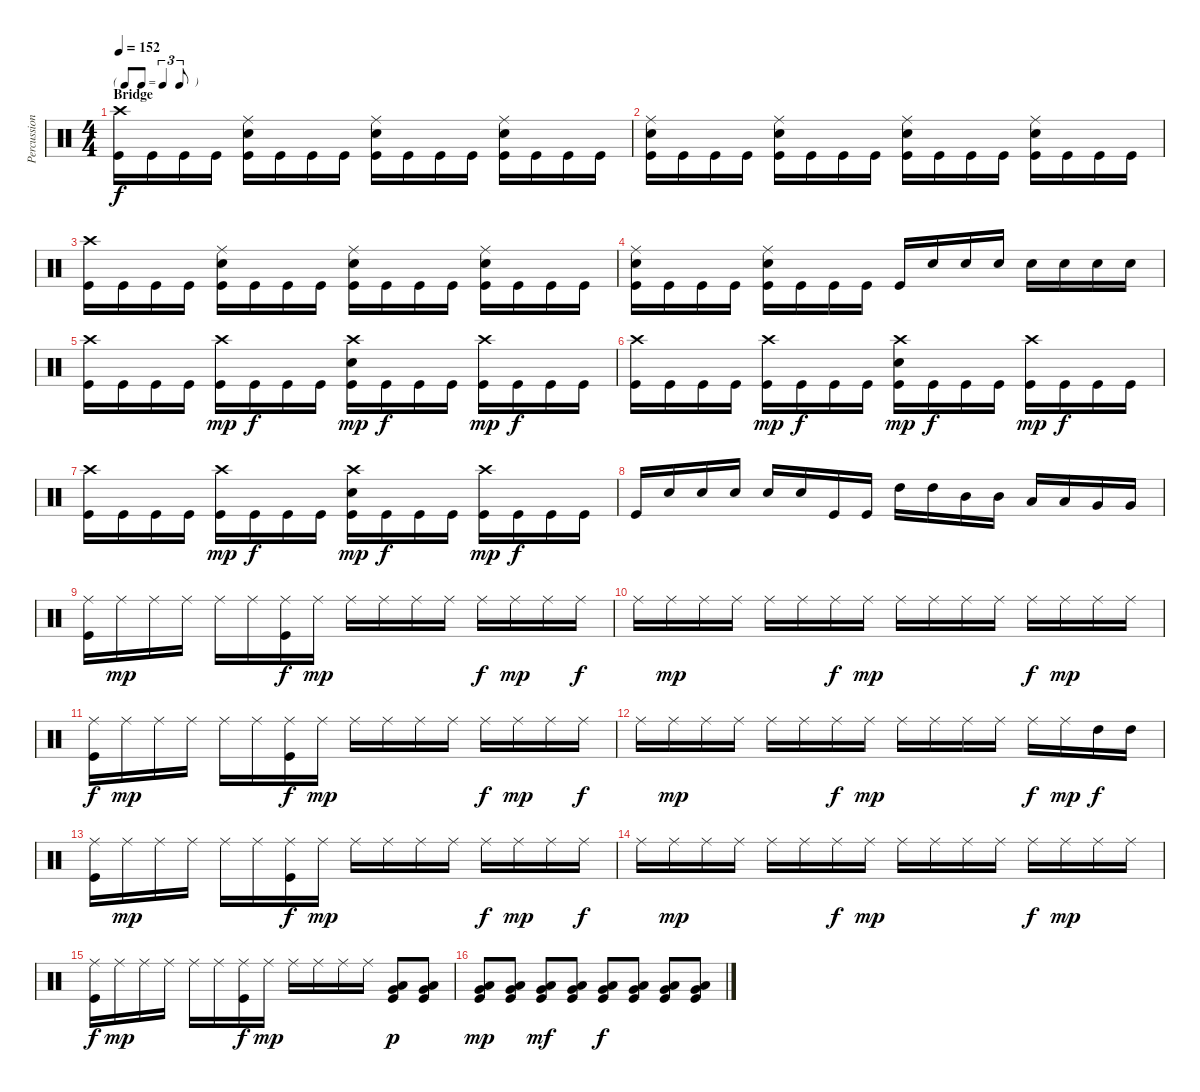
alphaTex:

\track ("Percussion" "Percussion") {instrument percussion}
\staff {score}
\articulation defaults
\ts (4 4)
\tf triplet8th
\section ("" "Bridge")
\tempo 152
\clef neutral
\ks c
("Crash high (hit)" "Kick (hit)").16{dy f} "Kick (hit)".16 "Kick (hit)".16 "Kick (hit)".16 ("Snare (hit) 2" "Ride (middle)" "Kick (hit)").16 "Kick (hit)".16 "Kick (hit)".16 "Kick (hit)".16 ("Ride (middle)" "Snare (hit) 2" "Kick (hit)").16 "Kick (hit)".16 "Kick (hit)".16 "Kick (hit)".16 ("Snare (hit) 2" "Ride (middle)" "Kick (hit)").16 "Kick (hit)".16 "Kick (hit)".16 "Kick (hit)".16 |
("Snare (hit) 2" "Ride (middle)" "Kick (hit)").16 "Kick (hit)".16 "Kick (hit)".16 "Kick (hit)".16 ("Snare (hit) 2" "Ride (middle)" "Kick (hit)").16 "Kick (hit)".16 "Kick (hit)".16 "Kick (hit)".16 ("Ride (middle)" "Snare (hit) 2" "Kick (hit)").16 "Kick (hit)".16 "Kick (hit)".16 "Kick (hit)".16 ("Snare (hit) 2" "Ride (middle)" "Kick (hit)").16 "Kick (hit)".16 "Kick (hit)".16 "Kick (hit)".16 |
("Crash high (hit)" "Kick (hit)").16 "Kick (hit)".16 "Kick (hit)".16 "Kick (hit)".16 ("Snare (hit) 2" "Ride (middle)" "Kick (hit)").16 "Kick (hit)".16 "Kick (hit)".16 "Kick (hit)".16 ("Ride (middle)" "Snare (hit) 2" "Kick (hit)").16 "Kick (hit)".16 "Kick (hit)".16 "Kick (hit)".16 ("Snare (hit) 2" "Ride (middle)" "Kick (hit)").16 "Kick (hit)".16 "Kick (hit)".16 "Kick (hit)".16 |
("Ride (middle)" "Snare (hit) 2" "Kick (hit)").16 "Kick (hit)".16 "Kick (hit)".16 "Kick (hit)".16 ("Snare (hit) 2" "Ride (middle)" "Kick (hit)").16 "Kick (hit)".16 "Kick (hit)".16 "Kick (hit)".16 "Kick (hit)".16 "Snare (hit) 2".16 "Snare (hit) 2".16 "Snare (hit) 2".16 "Snare (hit) 2".16 "Snare (hit) 2".16 "Snare (hit) 2".16 "Snare (hit) 2".16 |
("Crash high (hit)" "Kick (hit)").16 "Kick (hit)".16 "Kick (hit)".16 "Kick (hit)".16 ("Crash high (hit)" "Kick (hit)").16{dy mp} "Kick (hit)".16{dy f} "Kick (hit)".16 "Kick (hit)".16 ("Crash high (hit)" "Snare (hit) 2" "Kick (hit)").16{dy mp} "Kick (hit)".16{dy f} "Kick (hit)".16 "Kick (hit)".16 ("Crash high (hit)" "Kick (hit)").16{dy mp} "Kick (hit)".16{dy f} "Kick (hit)".16 "Kick (hit)".16 |
("Crash high (hit)" "Kick (hit)").16 "Kick (hit)".16 "Kick (hit)".16 "Kick (hit)".16 ("Crash high (hit)" "Kick (hit)").16{dy mp} "Kick (hit)".16{dy f} "Kick (hit)".16 "Kick (hit)".16 ("Crash high (hit)" "Snare (hit) 2" "Kick (hit)").16{dy mp} "Kick (hit)".16{dy f} "Kick (hit)".16 "Kick (hit)".16 ("Crash high (hit)" "Kick (hit)").16{dy mp} "Kick (hit)".16{dy f} "Kick (hit)".16 "Kick (hit)".16 |
("Crash high (hit)" "Kick (hit)").16 "Kick (hit)".16 "Kick (hit)".16 "Kick (hit)".16 ("Crash high (hit)" "Kick (hit)").16{dy mp} "Kick (hit)".16{dy f} "Kick (hit)".16 "Kick (hit)".16 ("Crash high (hit)" "Snare (hit) 2" "Kick (hit)").16{dy mp} "Kick (hit)".16{dy f} "Kick (hit)".16 "Kick (hit)".16 ("Crash high (hit)" "Kick (hit)").16{dy mp} "Kick (hit)".16{dy f} "Kick (hit)".16 "Kick (hit)".16 |
"Kick (hit)".16 "Snare (hit) 2".16 "Snare (hit) 2".16 "Snare (hit) 2".16 "Snare (hit) 2".16 "Snare (hit) 2".16 "Kick (hit)".16 "Kick (hit)".16 "High Tom (hit)".16 "High Tom (hit)".16 "Mid Tom (hit)".16 "Mid Tom (hit)".16 "Low Tom (hit)".16 "Low Tom (hit)".16 "Very Low Tom (hit)".16 "Very Low Tom (hit)".16 |
("Ride (middle)" "Kick (hit)").16 "Ride (middle)".16{dy mp} "Ride (middle)".16 "Ride (middle)".16 "Ride (middle)".16 "Ride (middle)".16 ("Ride (middle)" "Kick (hit)").16{dy f} "Ride (middle)".16{dy mp} "Ride (middle)".16 "Ride (middle)".16 "Ride (middle)".16 "Ride (middle)".16 "Ride (middle)".16{dy f} "Ride (middle)".16{dy mp} "Ride (middle)".16 "Ride (middle)".16{dy f} |
"Ride (middle)".16 "Ride (middle)".16{dy mp} "Ride (middle)".16 "Ride (middle)".16 "Ride (middle)".16 "Ride (middle)".16 "Ride (middle)".16{dy f} "Ride (middle)".16{dy mp} "Ride (middle)".16 "Ride (middle)".16 "Ride (middle)".16 "Ride (middle)".16 "Ride (middle)".16{dy f} "Ride (middle)".16{dy mp} "Ride (middle)".16 "Ride (middle)".16 |
("Ride (middle)" "Kick (hit)").16{dy f} "Ride (middle)".16{dy mp} "Ride (middle)".16 "Ride (middle)".16 "Ride (middle)".16 "Ride (middle)".16 ("Ride (middle)" "Kick (hit)").16{dy f} "Ride (middle)".16{dy mp} "Ride (middle)".16 "Ride (middle)".16 "Ride (middle)".16 "Ride (middle)".16 "Ride (middle)".16{dy f} "Ride (middle)".16{dy mp} "Ride (middle)".16 "Ride (middle)".16{dy f} |
"Ride (middle)".16 "Ride (middle)".16{dy mp} "Ride (middle)".16 "Ride (middle)".16 "Ride (middle)".16 "Ride (middle)".16 "Ride (middle)".16{dy f} "Ride (middle)".16{dy mp} "Ride (middle)".16 "Ride (middle)".16 "Ride (middle)".16 "Ride (middle)".16 "Ride (middle)".16{dy f} "Ride (middle)".16{dy mp} "High Tom (hit)".16{dy f} "High Tom (hit)".16 |
("Ride (middle)" "Kick (hit)").16 "Ride (middle)".16{dy mp} "Ride (middle)".16 "Ride (middle)".16 "Ride (middle)".16 "Ride (middle)".16 ("Ride (middle)" "Kick (hit)").16{dy f} "Ride (middle)".16{dy mp} "Ride (middle)".16 "Ride (middle)".16 "Ride (middle)".16 "Ride (middle)".16 "Ride (middle)".16{dy f} "Ride (middle)".16{dy mp} "Ride (middle)".16 "Ride (middle)".16{dy f} |
"Ride (middle)".16 "Ride (middle)".16{dy mp} "Ride (middle)".16 "Ride (middle)".16 "Ride (middle)".16 "Ride (middle)".16 "Ride (middle)".16{dy f} "Ride (middle)".16{dy mp} "Ride (middle)".16 "Ride (middle)".16 "Ride (middle)".16 "Ride (middle)".16 "Ride (middle)".16{dy f} "Ride (middle)".16{dy mp} "Ride (middle)".16 "Ride (middle)".16 |
("Ride (middle)" "Kick (hit)").16{dy f} "Ride (middle)".16{dy mp} "Ride (middle)".16 "Ride (middle)".16 "Ride (middle)".16 "Ride (middle)".16 ("Ride (middle)" "Kick (hit)").16{dy f} "Ride (middle)".16{dy mp} "Ride (middle)".16 "Ride (middle)".16 "Ride (middle)".16 "Ride (middle)".16 ("Very Low Tom (hit)" "Low Floor Tom (hit)" "Kick (hit)").8{dy p} ("Very Low Tom (hit)" "Low Floor Tom (hit)" "Kick (hit)").8 |
("Very Low Tom (hit)" "Low Floor Tom (hit)" "Kick (hit)").8{dy mp} ("Very Low Tom (hit)" "Low Floor Tom (hit)" "Kick (hit)").8 ("Very Low Tom (hit)" "Low Floor Tom (hit)" "Kick (hit)").8{dy mf} ("Very Low Tom (hit)" "Low Floor Tom (hit)" "Kick (hit)").8 ("Very Low Tom (hit)" "Low Floor Tom (hit)" "Kick (hit)").8{dy f} ("Very Low Tom (hit)" "Low Floor Tom (hit)" "Kick (hit)").8 ("Very Low Tom (hit)" "Low Floor Tom (hit)" "Kick (hit)").8 ("Very Low Tom (hit)" "Low Floor Tom (hit)" "Kick (hit)").8
